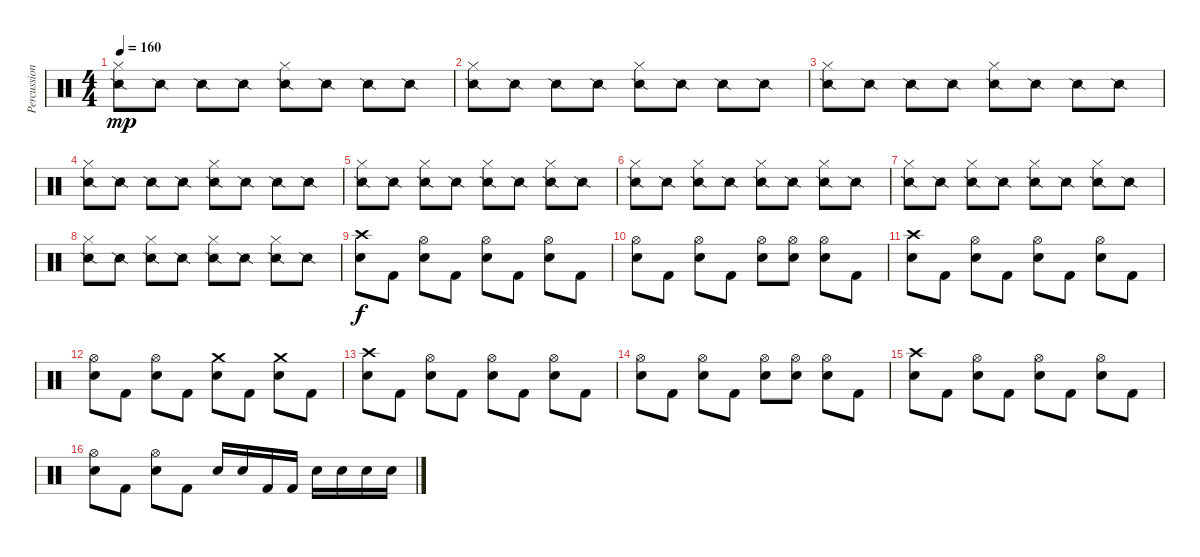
\track ("Percussion" "Percussion") {instrument percussion}
\staff {score}
\articulation defaults
\ts (4 4)
\tempo 160
\clef neutral
\ks c
("Hi-Hat (closed)" "Snare (side stick) 2").8{dy mp} "Snare (side stick) 2".8 "Snare (side stick) 2".8 "Snare (side stick) 2".8 ("Hi-Hat (closed)" "Snare (side stick) 2").8 "Snare (side stick) 2".8 "Snare (side stick) 2".8 "Snare (side stick) 2".8 |
("Hi-Hat (closed)" "Snare (side stick) 2").8 "Snare (side stick) 2".8 "Snare (side stick) 2".8 "Snare (side stick) 2".8 ("Hi-Hat (closed)" "Snare (side stick) 2").8 "Snare (side stick) 2".8 "Snare (side stick) 2".8 "Snare (side stick) 2".8 |
("Hi-Hat (closed)" "Snare (side stick) 2").8 "Snare (side stick) 2".8 "Snare (side stick) 2".8 "Snare (side stick) 2".8 ("Hi-Hat (closed)" "Snare (side stick) 2").8 "Snare (side stick) 2".8 "Snare (side stick) 2".8 "Snare (side stick) 2".8 |
("Hi-Hat (closed)" "Snare (side stick) 2").8 "Snare (side stick) 2".8 "Snare (side stick) 2".8 "Snare (side stick) 2".8 ("Hi-Hat (closed)" "Snare (side stick) 2").8 "Snare (side stick) 2".8 "Snare (side stick) 2".8 "Snare (side stick) 2".8 |
("Hi-Hat (closed)" "Snare (side stick) 2").8 "Snare (side stick) 2".8 ("Hi-Hat (closed)" "Snare (side stick) 2").8 "Snare (side stick) 2".8 ("Hi-Hat (closed)" "Snare (side stick) 2").8 "Snare (side stick) 2".8 ("Hi-Hat (closed)" "Snare (side stick) 2").8 "Snare (side stick) 2".8 |
("Hi-Hat (closed)" "Snare (side stick) 2").8 "Snare (side stick) 2".8 ("Hi-Hat (closed)" "Snare (side stick) 2").8 "Snare (side stick) 2".8 ("Hi-Hat (closed)" "Snare (side stick) 2").8 "Snare (side stick) 2".8 ("Hi-Hat (closed)" "Snare (side stick) 2").8 "Snare (side stick) 2".8 |
("Hi-Hat (closed)" "Snare (side stick) 2").8 "Snare (side stick) 2".8 ("Hi-Hat (closed)" "Snare (side stick) 2").8 "Snare (side stick) 2".8 ("Hi-Hat (closed)" "Snare (side stick) 2").8 "Snare (side stick) 2".8 ("Hi-Hat (closed)" "Snare (side stick) 2").8 "Snare (side stick) 2".8 |
("Hi-Hat (closed)" "Snare (side stick) 2").8 "Snare (side stick) 2".8 ("Hi-Hat (closed)" "Snare (side stick) 2").8 "Snare (side stick) 2".8 ("Hi-Hat (closed)" "Snare (side stick) 2").8 "Snare (side stick) 2".8 ("Hi-Hat (closed)" "Snare (side stick) 2").8 "Snare (side stick) 2".8 |
("Crash high (hit)" "Electric Snare (hit)").8{dy f} "Kick (hit) 2".8 ("Hi-Hat (open)" "Electric Snare (hit)").8 "Kick (hit) 2".8 ("Hi-Hat (open)" "Electric Snare (hit)").8 "Kick (hit) 2".8 ("Hi-Hat (open)" "Electric Snare (hit)").8 "Kick (hit) 2".8 |
("Hi-Hat (open)" "Electric Snare (hit)").8 "Kick (hit) 2".8 ("Hi-Hat (open)" "Electric Snare (hit)").8 "Kick (hit) 2".8 ("Hi-Hat (open)" "Electric Snare (hit)").8 ("Hi-Hat (open)" "Electric Snare (hit)").8 ("Hi-Hat (open)" "Electric Snare (hit)").8 "Kick (hit) 2".8 |
("Crash high (hit)" "Electric Snare (hit)").8 "Kick (hit) 2".8 ("Hi-Hat (open)" "Electric Snare (hit)").8 "Kick (hit) 2".8 ("Hi-Hat (open)" "Electric Snare (hit)").8 "Kick (hit) 2".8 ("Hi-Hat (open)" "Electric Snare (hit)").8 "Kick (hit) 2".8 |
("Hi-Hat (open)" "Electric Snare (hit)").8 "Kick (hit) 2".8 ("Hi-Hat (open)" "Electric Snare (hit)").8 "Kick (hit) 2".8 ("Crash medium (hit)" "Electric Snare (hit)").8 "Kick (hit) 2".8 ("Crash medium (hit)" "Electric Snare (hit)").8 "Kick (hit) 2".8 |
("Crash high (hit)" "Electric Snare (hit)").8 "Kick (hit) 2".8 ("Hi-Hat (open)" "Electric Snare (hit)").8 "Kick (hit) 2".8 ("Hi-Hat (open)" "Electric Snare (hit)").8 "Kick (hit) 2".8 ("Hi-Hat (open)" "Electric Snare (hit)").8 "Kick (hit) 2".8 |
("Hi-Hat (open)" "Electric Snare (hit)").8 "Kick (hit) 2".8 ("Hi-Hat (open)" "Electric Snare (hit)").8 "Kick (hit) 2".8 ("Hi-Hat (open)" "Electric Snare (hit)").8 ("Hi-Hat (open)" "Electric Snare (hit)").8 ("Hi-Hat (open)" "Electric Snare (hit)").8 "Kick (hit) 2".8 |
("Crash high (hit)" "Electric Snare (hit)").8 "Kick (hit) 2".8 ("Hi-Hat (open)" "Electric Snare (hit)").8 "Kick (hit) 2".8 ("Hi-Hat (open)" "Electric Snare (hit)").8 "Kick (hit) 2".8 ("Hi-Hat (open)" "Electric Snare (hit)").8 "Kick (hit) 2".8 |
("Hi-Hat (open)" "Electric Snare (hit)").8 "Kick (hit) 2".8 ("Hi-Hat (open)" "Electric Snare (hit)").8 "Kick (hit) 2".8 "Electric Snare (hit)".16 "Electric Snare (hit)".16 "Kick (hit) 2".16 "Kick (hit) 2".16 "Electric Snare (hit)".16 "Electric Snare (hit)".16 "Electric Snare (hit)".16 "Electric Snare (hit)".16
